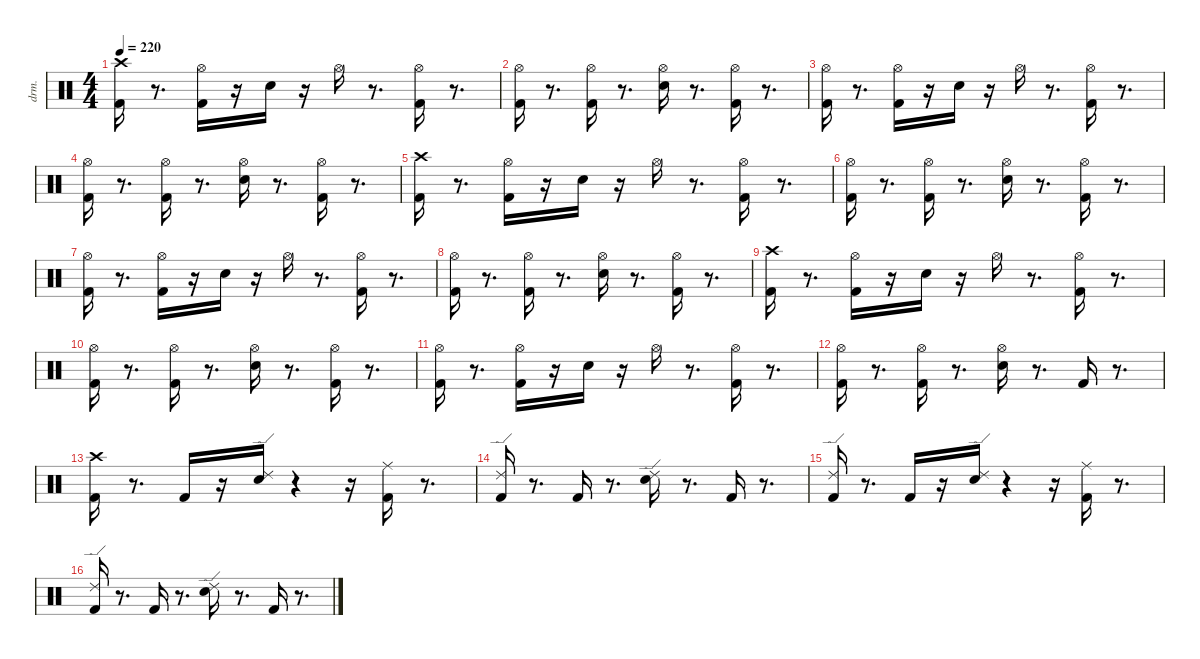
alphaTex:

\defaultSystemsLayout 4
\hideDynamics
\bracketExtendMode nobrackets
\otherSystemsTrackNameOrientation horizontal
\track ("EZdrummer 3" "drm.") {mute instrument percussion}
\staff {score}
\articulation defaults
\ts (4 4)
\tempo 220
\clef neutral
\ks c
("Kick (hit) 2" "Crash high (hit)"{acc #}).16{dy fff beam Down} r.8{d beam Down} ("Kick (hit) 2" "Hi-Hat (open)"{acc #}).16{dy ff beam Down} r.16{beam Down} "Snare (hit) 2".16{beam Down} r.16{beam Down} "Hi-Hat (open)"{acc #}.16{beam Down} r.8{d beam Down} ("Kick (hit) 2" "Hi-Hat (open)"{acc #}).16{beam Down} r.8{d beam Down} |
("Kick (hit) 2" "Hi-Hat (open)"{acc #}).16{beam Down} r.8{d beam Down} ("Kick (hit) 2" "Hi-Hat (open)"{acc #}).16{beam Down} r.8{d beam Down} ("Snare (hit) 2" "Hi-Hat (open)"{acc #}).16{beam Down} r.8{d beam Down} ("Kick (hit) 2" "Hi-Hat (open)"{acc #}).16{dy mf beam Down} r.8{d beam Down} |
("Kick (hit) 2" "Hi-Hat (open)"{acc #}).16{dy fff beam Down} r.8{d beam Down} ("Kick (hit) 2" "Hi-Hat (open)"{acc #}).16{dy ff beam Down} r.16{beam Down} "Snare (hit) 2".16{beam Down} r.16{beam Down} "Hi-Hat (open)"{acc #}.16{beam Down} r.8{d beam Down} ("Kick (hit) 2" "Hi-Hat (open)"{acc #}).16{beam Down} r.8{d beam Down} |
("Kick (hit) 2" "Hi-Hat (open)"{acc #}).16{beam Down} r.8{d beam Down} ("Kick (hit) 2" "Hi-Hat (open)"{acc #}).16{beam Down} r.8{d beam Down} ("Snare (hit) 2" "Hi-Hat (open)"{acc #}).16{beam Down} r.8{d beam Down} ("Kick (hit) 2" "Hi-Hat (open)"{acc #}).16{dy mf beam Down} r.8{d beam Down} |
("Kick (hit) 2" "Crash high (hit)"{acc #}).16{dy fff beam Down} r.8{d beam Down} ("Kick (hit) 2" "Hi-Hat (open)"{acc #}).16{dy ff beam Down} r.16{beam Down} "Snare (hit) 2".16{beam Down} r.16{beam Down} "Hi-Hat (open)"{acc #}.16{beam Down} r.8{d beam Down} ("Kick (hit) 2" "Hi-Hat (open)"{acc #}).16{beam Down} r.8{d beam Down} |
("Kick (hit) 2" "Hi-Hat (open)"{acc #}).16{beam Down} r.8{d beam Down} ("Kick (hit) 2" "Hi-Hat (open)"{acc #}).16{beam Down} r.8{d beam Down} ("Snare (hit) 2" "Hi-Hat (open)"{acc #}).16{beam Down} r.8{d beam Down} ("Kick (hit) 2" "Hi-Hat (open)"{acc #}).16{dy mf beam Down} r.8{d beam Down} |
("Kick (hit) 2" "Hi-Hat (open)"{acc #}).16{dy fff beam Down} r.8{d beam Down} ("Kick (hit) 2" "Hi-Hat (open)"{acc #}).16{dy ff beam Down} r.16{beam Down} "Snare (hit) 2".16{beam Down} r.16{beam Down} "Hi-Hat (open)"{acc #}.16{beam Down} r.8{d beam Down} ("Kick (hit) 2" "Hi-Hat (open)"{acc #}).16{beam Down} r.8{d beam Down} |
("Kick (hit) 2" "Hi-Hat (open)"{acc #}).16{beam Down} r.8{d beam Down} ("Kick (hit) 2" "Hi-Hat (open)"{acc #}).16{beam Down} r.8{d beam Down} ("Snare (hit) 2" "Hi-Hat (open)"{acc #}).16{beam Down} r.8{d beam Down} ("Kick (hit) 2" "Hi-Hat (open)"{acc #}).16{dy mf beam Down} r.8{d beam Down} |
("Kick (hit) 2" "Crash high (hit)"{acc #}).16{dy fff beam Down} r.8{d beam Down} ("Kick (hit) 2" "Hi-Hat (open)"{acc #}).16{dy ff beam Down} r.16{beam Down} "Snare (hit) 2".16{beam Down} r.16{beam Down} "Hi-Hat (open)"{acc #}.16{beam Down} r.8{d beam Down} ("Kick (hit) 2" "Hi-Hat (open)"{acc #}).16{beam Down} r.8{d beam Down} |
("Kick (hit) 2" "Hi-Hat (open)"{acc #}).16{beam Down} r.8{d beam Down} ("Kick (hit) 2" "Hi-Hat (open)"{acc #}).16{beam Down} r.8{d beam Down} ("Snare (hit) 2" "Hi-Hat (open)"{acc #}).16{beam Down} r.8{d beam Down} ("Kick (hit) 2" "Hi-Hat (open)"{acc #}).16{dy mf beam Down} r.8{d beam Down} |
("Kick (hit) 2" "Hi-Hat (open)"{acc #}).16{dy fff beam Down} r.8{d beam Down} ("Kick (hit) 2" "Hi-Hat (open)"{acc #}).16{dy ff beam Down} r.16{beam Down} "Snare (hit) 2".16{beam Down} r.16{beam Down} "Hi-Hat (open)"{acc #}.16{beam Down} r.8{d beam Down} ("Kick (hit) 2" "Hi-Hat (open)"{acc #}).16{beam Down} r.8{d beam Down} |
("Kick (hit) 2" "Hi-Hat (open)"{acc #}).16{beam Down} r.8{d beam Down} ("Kick (hit) 2" "Hi-Hat (open)"{acc #}).16{beam Down} r.8{d beam Down} ("Snare (hit) 2" "Hi-Hat (open)"{acc #}).16{beam Down} r.8{d beam Down} "Kick (hit) 2".16{dy mf beam Up} r.8{d beam Up} |
("Kick (hit) 2" "Crash high (hit)"{acc #}).16{dy fff beam Down} r.8{d beam Down} "Kick (hit) 2".16{dy ff beam Up} r.16{beam Up} ("Snare (hit) 2" "Ride (edge) 2").16{beam Down} r.4{beam Down} r.16{beam Down} ("Kick (hit) 2" "Ride (middle)"{acc #}).16{dy f beam Down} r.8{d beam Down} |
("Kick (hit) 2" "Ride (edge) 2").16{dy ff beam Up} r.8{d beam Up} "Kick (hit) 2".16{dy f beam Up} r.8{d beam Up} ("Snare (hit) 2" "Ride (edge) 2").16{dy ff beam Down} r.8{d beam Down} "Kick (hit) 2".16{dy mf beam Up} r.8{d beam Up} |
("Kick (hit) 2" "Ride (edge) 2").16{dy fff beam Up} r.8{d beam Up} "Kick (hit) 2".16{dy ff beam Up} r.16{beam Up} ("Snare (hit) 2" "Ride (edge) 2").16{beam Down} r.4{beam Down} r.16{beam Down} ("Kick (hit) 2" "Ride (middle)"{acc #}).16{dy f beam Down} r.8{d beam Down} |
("Kick (hit) 2" "Ride (edge) 2").16{dy ff beam Up} r.8{d beam Up} "Kick (hit) 2".16{dy f beam Up} r.8{d beam Up} ("Snare (hit) 2" "Ride (edge) 2").16{dy ff beam Down} r.8{d beam Down} "Kick (hit) 2".16{dy mf beam Up} r.8{d beam Up}
